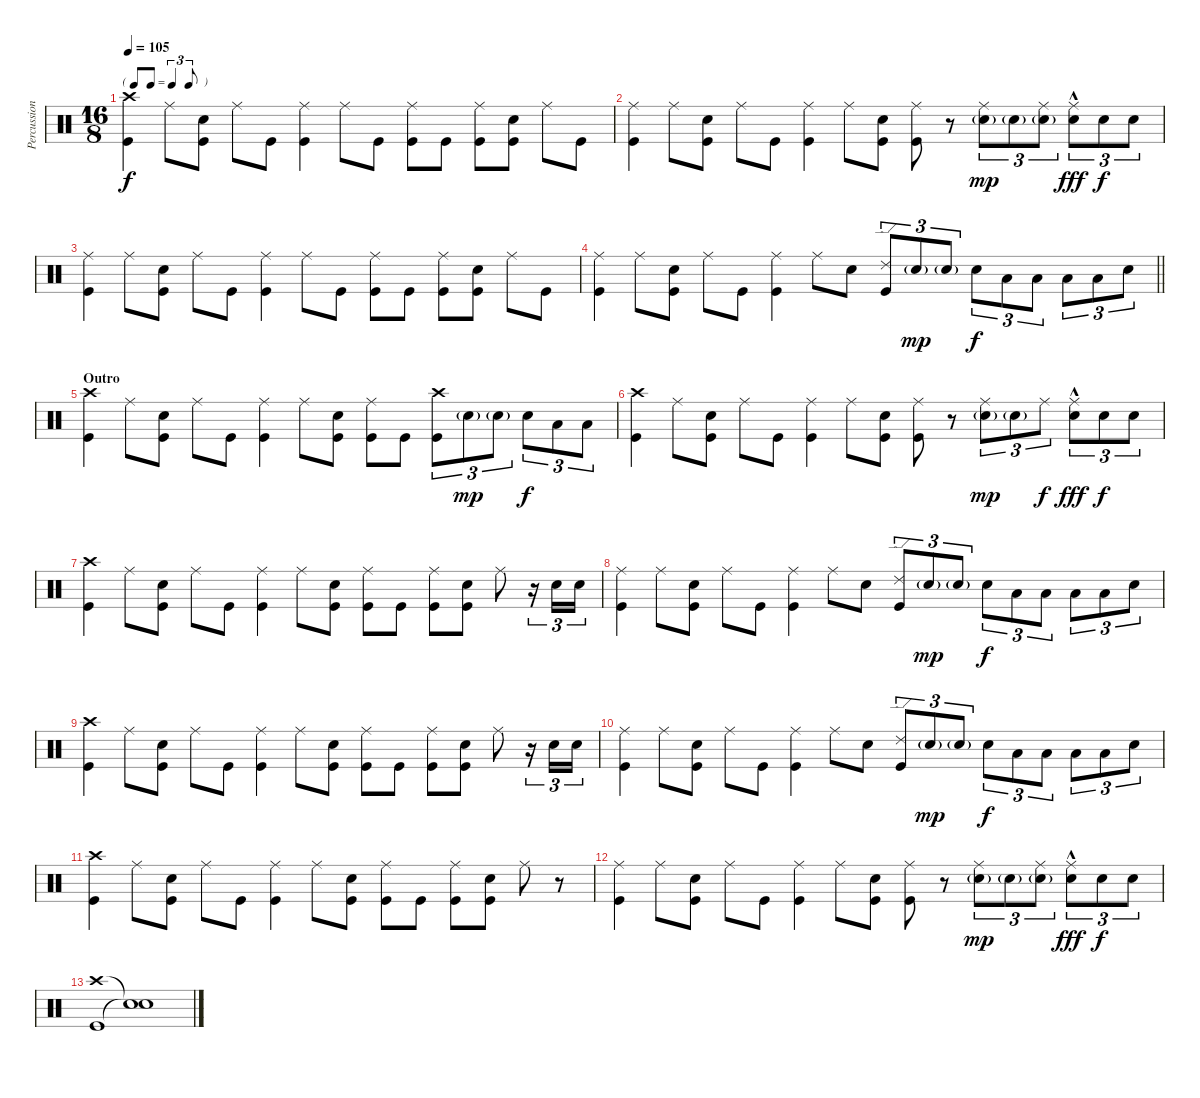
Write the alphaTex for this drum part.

\track ("Percussion" "Percussion") {instrument percussion}
\staff {score}
\articulation defaults
\ts (16 8)
\tf triplet8th
\tempo 105
\clef neutral
\ks c
("Crash high (hit)" "Kick (hit)").4{dy f} "Ride (middle)".8 ("Electric Snare (hit)" "Kick (hit)").8 "Ride (middle)".8 "Kick (hit)".8 ("Ride (middle)" "Kick (hit)").4 "Ride (middle)".8 "Kick (hit)".8 ("Ride (middle)" "Kick (hit)").8 "Kick (hit)".8 ("Ride (middle)" "Kick (hit)").8 ("Electric Snare (hit)" "Kick (hit)").8 "Ride (middle)".8 "Kick (hit)".8 |
("Ride (middle)" "Kick (hit)").4 "Ride (middle)".8 ("Electric Snare (hit)" "Kick (hit)").8 "Ride (middle)".8 "Kick (hit)".8 ("Ride (middle)" "Kick (hit)").4 "Ride (middle)".8 ("Electric Snare (hit)" "Kick (hit)").8 ("Ride (middle)" "Kick (hit)").8 r.8 ("Ride (middle)" "Electric Snare (hit)"{g}).8{tu (3 2) dy mp} "Electric Snare (hit)"{g}.8{tu (3 2)} ("Ride (middle)" "Electric Snare (hit)"{g}).8{tu (3 2)} ("Ride (middle)"{hac} "Electric Snare (hit)").8{tu (3 2) dy fff} "Electric Snare (hit)".8{tu (3 2) dy f} "Electric Snare (hit)".8{tu (3 2)} |
("Ride (middle)" "Kick (hit)").4 "Ride (middle)".8 ("Electric Snare (hit)" "Kick (hit)").8 "Ride (middle)".8 "Kick (hit)".8 ("Ride (middle)" "Kick (hit)").4 "Ride (middle)".8 "Kick (hit)".8 ("Ride (middle)" "Kick (hit)").8 "Kick (hit)".8 ("Ride (middle)" "Kick (hit)").8 ("Electric Snare (hit)" "Kick (hit)").8 "Ride (middle)".8 "Kick (hit)".8 |
\barLineRight lightlight
("Ride (middle)" "Kick (hit)").4 "Ride (middle)".8 ("Electric Snare (hit)" "Kick (hit)").8 "Ride (middle)".8 "Kick (hit)".8 ("Ride (middle)" "Kick (hit)").4 "Ride (middle)".8 "Electric Snare (hit)".8 ("Ride (edge) 2" "Kick (hit)").8{tu (3 2)} "Electric Snare (hit)"{g}.8{tu (3 2) dy mp} "Electric Snare (hit)"{g}.8{tu (3 2)} "Electric Snare (hit)".8{tu (3 2) dy f} "Low Floor Tom (hit)".8{tu (3 2)} "Low Floor Tom (hit)".8{tu (3 2)} "Low Floor Tom (hit)".8{tu (3 2)} "Low Floor Tom (hit)".8{tu (3 2)} "Electric Snare (hit)".8{tu (3 2)} |
\section ("" "Outro")
("Crash high (hit)" "Kick (hit)").4 "Ride (middle)".8 ("Electric Snare (hit)" "Kick (hit)").8 "Ride (middle)".8 "Kick (hit)".8 ("Ride (middle)" "Kick (hit)").4 "Ride (middle)".8 ("Electric Snare (hit)" "Kick (hit)").8 ("Ride (middle)" "Kick (hit)").8 "Kick (hit)".8 ("Crash high (hit)" "Kick (hit)").8{tu (3 2)} "Electric Snare (hit)"{g}.8{tu (3 2) dy mp} "Electric Snare (hit)"{g}.8{tu (3 2)} "Electric Snare (hit)".8{tu (3 2) dy f} "Low Floor Tom (hit)".8{tu (3 2)} "Low Floor Tom (hit)".8{tu (3 2)} |
("Crash high (hit)" "Kick (hit)").4 "Ride (middle)".8 ("Electric Snare (hit)" "Kick (hit)").8 "Ride (middle)".8 "Kick (hit)".8 ("Ride (middle)" "Kick (hit)").4 "Ride (middle)".8 ("Electric Snare (hit)" "Kick (hit)").8 ("Ride (middle)" "Kick (hit)").8 r.8 ("Ride (middle)" "Electric Snare (hit)"{g}).8{tu (3 2) dy mp} "Electric Snare (hit)"{g}.8{tu (3 2)} "Ride (middle)".8{tu (3 2) dy f} ("Ride (middle)"{hac} "Electric Snare (hit)").8{tu (3 2) dy fff} "Electric Snare (hit)".8{tu (3 2) dy f} "Electric Snare (hit)".8{tu (3 2)} |
("Crash high (hit)" "Kick (hit)").4 "Ride (middle)".8 ("Electric Snare (hit)" "Kick (hit)").8 "Ride (middle)".8 "Kick (hit)".8 ("Ride (middle)" "Kick (hit)").4 "Ride (middle)".8 ("Electric Snare (hit)" "Kick (hit)").8 ("Ride (middle)" "Kick (hit)").8 "Kick (hit)".8 ("Ride (middle)" "Kick (hit)").8 ("Electric Snare (hit)" "Kick (hit)").8 "Ride (middle)".8 r.16{tu (3 2)} "Electric Snare (hit)".16{tu (3 2)} "Electric Snare (hit)".16{tu (3 2)} |
("Ride (middle)" "Kick (hit)").4 "Ride (middle)".8 ("Electric Snare (hit)" "Kick (hit)").8 "Ride (middle)".8 "Kick (hit)".8 ("Ride (middle)" "Kick (hit)").4 "Ride (middle)".8 "Electric Snare (hit)".8 ("Ride (edge) 2" "Kick (hit)").8{tu (3 2)} "Electric Snare (hit)"{g}.8{tu (3 2) dy mp} "Electric Snare (hit)"{g}.8{tu (3 2)} "Electric Snare (hit)".8{tu (3 2) dy f} "Low Floor Tom (hit)".8{tu (3 2)} "Low Floor Tom (hit)".8{tu (3 2)} "Low Floor Tom (hit)".8{tu (3 2)} "Low Floor Tom (hit)".8{tu (3 2)} "Electric Snare (hit)".8{tu (3 2)} |
("Crash high (hit)" "Kick (hit)").4 "Ride (middle)".8 ("Electric Snare (hit)" "Kick (hit)").8 "Ride (middle)".8 "Kick (hit)".8 ("Ride (middle)" "Kick (hit)").4 "Ride (middle)".8 ("Electric Snare (hit)" "Kick (hit)").8 ("Ride (middle)" "Kick (hit)").8 "Kick (hit)".8 ("Ride (middle)" "Kick (hit)").8 ("Electric Snare (hit)" "Kick (hit)").8 "Ride (middle)".8 r.16{tu (3 2)} "Electric Snare (hit)".16{tu (3 2)} "Electric Snare (hit)".16{tu (3 2)} |
("Ride (middle)" "Kick (hit)").4 "Ride (middle)".8 ("Electric Snare (hit)" "Kick (hit)").8 "Ride (middle)".8 "Kick (hit)".8 ("Ride (middle)" "Kick (hit)").4 "Ride (middle)".8 "Electric Snare (hit)".8 ("Ride (edge) 2" "Kick (hit)").8{tu (3 2)} "Electric Snare (hit)"{g}.8{tu (3 2) dy mp} "Electric Snare (hit)"{g}.8{tu (3 2)} "Electric Snare (hit)".8{tu (3 2) dy f} "Low Floor Tom (hit)".8{tu (3 2)} "Low Floor Tom (hit)".8{tu (3 2)} "Low Floor Tom (hit)".8{tu (3 2)} "Low Floor Tom (hit)".8{tu (3 2)} "Electric Snare (hit)".8{tu (3 2)} |
("Crash high (hit)" "Kick (hit)").4 "Ride (middle)".8 ("Electric Snare (hit)" "Kick (hit)").8 "Ride (middle)".8 "Kick (hit)".8 ("Ride (middle)" "Kick (hit)").4 "Ride (middle)".8 ("Electric Snare (hit)" "Kick (hit)").8 ("Ride (middle)" "Kick (hit)").8 "Kick (hit)".8 ("Ride (middle)" "Kick (hit)").8 ("Electric Snare (hit)" "Kick (hit)").8 "Ride (middle)".8 r.8 |
("Ride (middle)" "Kick (hit)").4 "Ride (middle)".8 ("Electric Snare (hit)" "Kick (hit)").8 "Ride (middle)".8 "Kick (hit)".8 ("Ride (middle)" "Kick (hit)").4 "Ride (middle)".8 ("Electric Snare (hit)" "Kick (hit)").8 ("Ride (middle)" "Kick (hit)").8 r.8 ("Ride (middle)" "Electric Snare (hit)"{g}).8{tu (3 2) dy mp} "Electric Snare (hit)"{g}.8{tu (3 2)} ("Ride (middle)" "Electric Snare (hit)"{g}).8{tu (3 2)} ("Ride (middle)"{hac} "Electric Snare (hit)").8{tu (3 2) dy fff} "Electric Snare (hit)".8{tu (3 2) dy f} "Electric Snare (hit)".8{tu (3 2)} |
("Crash high (hit)" "Kick (hit)").1 ("Snare (hit)"{t} "Snare (hit)"{t}).1
